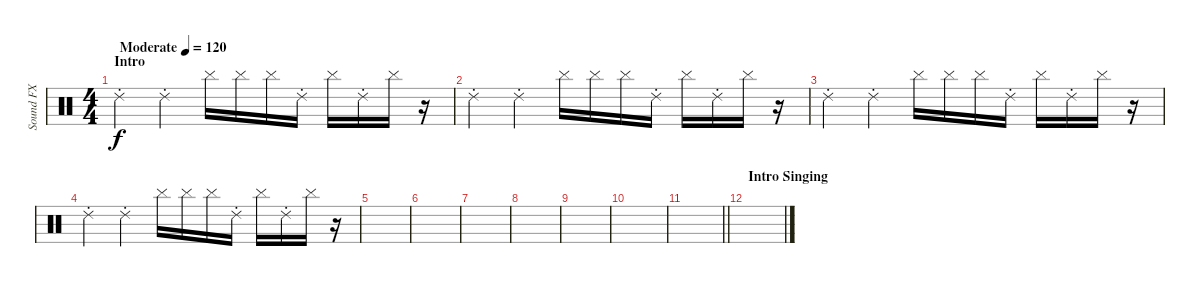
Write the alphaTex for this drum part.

\track ("Sound FX" "Sound FX") {instrument percussion}
\staff {score}
\articulation defaults
\ts (4 4)
\section ("" "Intro")
\tempo (120 "Moderate")
\clef neutral
\ks c "Ride (choke) 2".4{dy f} "Ride (choke) 2".4 "Cymbal (hit)".16 "Cymbal (hit)".16 "Cymbal (hit)".16 "Ride (choke) 2".16 "Cymbal (hit)".16 "Ride (choke) 2".16 "Cymbal (hit)".16
r.16 |
"Ride (choke) 2".4 "Ride (choke) 2".4 "Cymbal (hit)".16 "Cymbal (hit)".16 "Cymbal (hit)".16 "Ride (choke) 2".16 "Cymbal (hit)".16 "Ride (choke) 2".16 "Cymbal (hit)".16 r.16 |
"Ride (choke) 2".4 "Ride (choke) 2".4 "Cymbal (hit)".16 "Cymbal (hit)".16 "Cymbal (hit)".16 "Ride (choke) 2".16 "Cymbal (hit)".16 "Ride (choke) 2".16 "Cymbal (hit)".16 r.16 |
"Ride (choke) 2".4 "Ride (choke) 2".4 "Cymbal (hit)".16 "Cymbal (hit)".16 "Cymbal (hit)".16 "Ride (choke) 2".16 "Cymbal (hit)".16 "Ride (choke) 2".16 "Cymbal (hit)".16 r.16 |
|
|
|
|
|
|
\barLineRight lightlight
|
\section ("" "Intro Singing")
